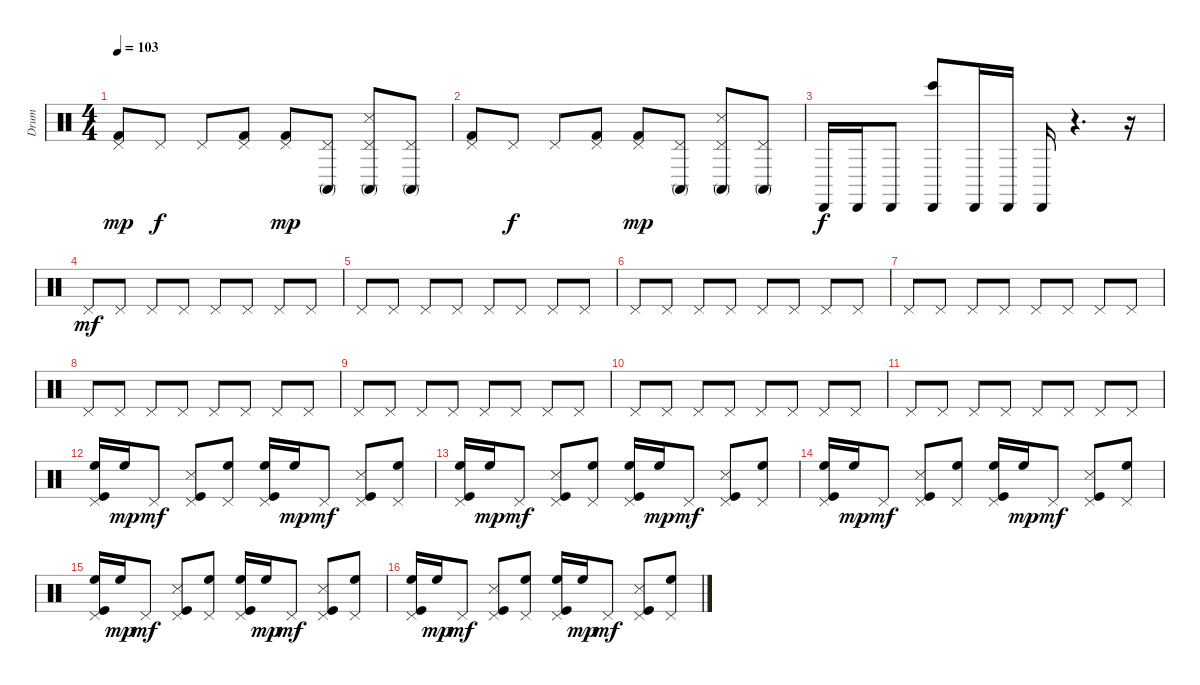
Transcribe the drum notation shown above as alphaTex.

\track ("Drum" "Drum") {instrument percussion}
\staff {score}
\articulation defaults
\ts (4 4)
\tempo 103
\clef neutral
\ks c
("Pedal Hi-Hat (hit)" "Kick (hit) 2").8{dy mp} "Pedal Hi-Hat (hit)".8{dy f} "Pedal Hi-Hat (hit)".8 ("Pedal Hi-Hat (hit)" "Kick (hit) 2").8 ("Pedal Hi-Hat (hit)" "Kick (hit) 2").8{dy mp} ("Pedal Hi-Hat (hit)" "Conga high (mute)").8 ("Pedal Hi-Hat (hit)" "Conga high (mute)" "Metronome (hit)").8 ("Pedal Hi-Hat (hit)" "Conga high (mute)").8 |
("Pedal Hi-Hat (hit)" "Kick (hit) 2").8 "Pedal Hi-Hat (hit)".8{dy f} "Pedal Hi-Hat (hit)".8 ("Pedal Hi-Hat (hit)" "Kick (hit) 2").8 ("Pedal Hi-Hat (hit)" "Kick (hit) 2").8{dy mp} ("Pedal Hi-Hat (hit)" "Conga high (mute)").8 ("Pedal Hi-Hat (hit)" "Conga high (mute)" "Metronome (hit)").8 ("Pedal Hi-Hat (hit)" "Conga high (mute)").8 |
"Cabasa (hit)".16{dy f} "Cabasa (hit)".16 "Cabasa (hit)".8 ("Cabasa (hit)" "Bongo High (hit)").8 "Cabasa (hit)".16 "Cabasa (hit)".16 "Cabasa (hit)".16 r.4{d} r.16 |
"Pedal Hi-Hat (hit)".8{dy mf} "Pedal Hi-Hat (hit)".8 "Pedal Hi-Hat (hit)".8 "Pedal Hi-Hat (hit)".8 "Pedal Hi-Hat (hit)".8 "Pedal Hi-Hat (hit)".8 "Pedal Hi-Hat (hit)".8 "Pedal Hi-Hat (hit)".8 |
"Pedal Hi-Hat (hit)".8 "Pedal Hi-Hat (hit)".8 "Pedal Hi-Hat (hit)".8 "Pedal Hi-Hat (hit)".8 "Pedal Hi-Hat (hit)".8 "Pedal Hi-Hat (hit)".8 "Pedal Hi-Hat (hit)".8 "Pedal Hi-Hat (hit)".8 |
"Pedal Hi-Hat (hit)".8 "Pedal Hi-Hat (hit)".8 "Pedal Hi-Hat (hit)".8 "Pedal Hi-Hat (hit)".8 "Pedal Hi-Hat (hit)".8 "Pedal Hi-Hat (hit)".8 "Pedal Hi-Hat (hit)".8 "Pedal Hi-Hat (hit)".8 |
"Pedal Hi-Hat (hit)".8 "Pedal Hi-Hat (hit)".8 "Pedal Hi-Hat (hit)".8 "Pedal Hi-Hat (hit)".8 "Pedal Hi-Hat (hit)".8 "Pedal Hi-Hat (hit)".8 "Pedal Hi-Hat (hit)".8 "Pedal Hi-Hat (hit)".8 |
"Pedal Hi-Hat (hit)".8 "Pedal Hi-Hat (hit)".8 "Pedal Hi-Hat (hit)".8 "Pedal Hi-Hat (hit)".8 "Pedal Hi-Hat (hit)".8 "Pedal Hi-Hat (hit)".8 "Pedal Hi-Hat (hit)".8 "Pedal Hi-Hat (hit)".8 |
"Pedal Hi-Hat (hit)".8 "Pedal Hi-Hat (hit)".8 "Pedal Hi-Hat (hit)".8 "Pedal Hi-Hat (hit)".8 "Pedal Hi-Hat (hit)".8 "Pedal Hi-Hat (hit)".8 "Pedal Hi-Hat (hit)".8 "Pedal Hi-Hat (hit)".8 |
"Pedal Hi-Hat (hit)".8 "Pedal Hi-Hat (hit)".8 "Pedal Hi-Hat (hit)".8 "Pedal Hi-Hat (hit)".8 "Pedal Hi-Hat (hit)".8 "Pedal Hi-Hat (hit)".8 "Pedal Hi-Hat (hit)".8 "Pedal Hi-Hat (hit)".8 |
"Pedal Hi-Hat (hit)".8 "Pedal Hi-Hat (hit)".8 "Pedal Hi-Hat (hit)".8 "Pedal Hi-Hat (hit)".8 "Pedal Hi-Hat (hit)".8 "Pedal Hi-Hat (hit)".8 "Pedal Hi-Hat (hit)".8 "Pedal Hi-Hat (hit)".8 |
("Kick (hit)" "High Floor Tom (hit)" "Pedal Hi-Hat (hit)").16{volume 16} "High Floor Tom (hit)".16{dy mp} "Pedal Hi-Hat (hit)".8{dy mf} ("Kick (hit)" "Snare (side stick) 3" "Pedal Hi-Hat (hit)").8 ("High Floor Tom (hit)" "Pedal Hi-Hat (hit)").8 ("Kick (hit)" "High Floor Tom (hit)" "Pedal Hi-Hat (hit)").16 "High Floor Tom (hit)".16{dy mp} "Pedal Hi-Hat (hit)".8{dy mf} ("Kick (hit)" "Snare (side stick) 3" "Pedal Hi-Hat (hit)").8 ("High Floor Tom (hit)" "Pedal Hi-Hat (hit)").8 |
("Kick (hit)" "High Floor Tom (hit)" "Pedal Hi-Hat (hit)").16 "High Floor Tom (hit)".16{dy mp} "Pedal Hi-Hat (hit)".8{dy mf} ("Kick (hit)" "Snare (side stick) 3" "Pedal Hi-Hat (hit)").8 ("High Floor Tom (hit)" "Pedal Hi-Hat (hit)").8 ("Kick (hit)" "High Floor Tom (hit)" "Pedal Hi-Hat (hit)").16 "High Floor Tom (hit)".16{dy mp} "Pedal Hi-Hat (hit)".8{dy mf} ("Kick (hit)" "Snare (side stick) 3" "Pedal Hi-Hat (hit)").8 ("High Floor Tom (hit)" "Pedal Hi-Hat (hit)").8 |
("Kick (hit)" "High Floor Tom (hit)" "Pedal Hi-Hat (hit)").16 "High Floor Tom (hit)".16{dy mp} "Pedal Hi-Hat (hit)".8{dy mf} ("Kick (hit)" "Snare (side stick) 3" "Pedal Hi-Hat (hit)").8 ("High Floor Tom (hit)" "Pedal Hi-Hat (hit)").8 ("Kick (hit)" "High Floor Tom (hit)" "Pedal Hi-Hat (hit)").16 "High Floor Tom (hit)".16{dy mp} "Pedal Hi-Hat (hit)".8{dy mf} ("Kick (hit)" "Snare (side stick) 3" "Pedal Hi-Hat (hit)").8 ("High Floor Tom (hit)" "Pedal Hi-Hat (hit)").8 |
("Kick (hit)" "High Floor Tom (hit)" "Pedal Hi-Hat (hit)").16 "High Floor Tom (hit)".16{dy mp} "Pedal Hi-Hat (hit)".8{dy mf} ("Kick (hit)" "Snare (side stick) 3" "Pedal Hi-Hat (hit)").8 ("High Floor Tom (hit)" "Pedal Hi-Hat (hit)").8 ("Kick (hit)" "High Floor Tom (hit)" "Pedal Hi-Hat (hit)").16 "High Floor Tom (hit)".16{dy mp} "Pedal Hi-Hat (hit)".8{dy mf} ("Kick (hit)" "Snare (side stick) 3" "Pedal Hi-Hat (hit)").8 ("High Floor Tom (hit)" "Pedal Hi-Hat (hit)").8 |
("Kick (hit)" "High Floor Tom (hit)" "Pedal Hi-Hat (hit)").16 "High Floor Tom (hit)".16{dy mp} "Pedal Hi-Hat (hit)".8{dy mf} ("Kick (hit)" "Snare (side stick) 3" "Pedal Hi-Hat (hit)").8 ("High Floor Tom (hit)" "Pedal Hi-Hat (hit)").8 ("Kick (hit)" "High Floor Tom (hit)" "Pedal Hi-Hat (hit)").16 "High Floor Tom (hit)".16{dy mp} "Pedal Hi-Hat (hit)".8{dy mf} ("Kick (hit)" "Snare (side stick) 3" "Pedal Hi-Hat (hit)").8 ("High Floor Tom (hit)" "Pedal Hi-Hat (hit)").8
